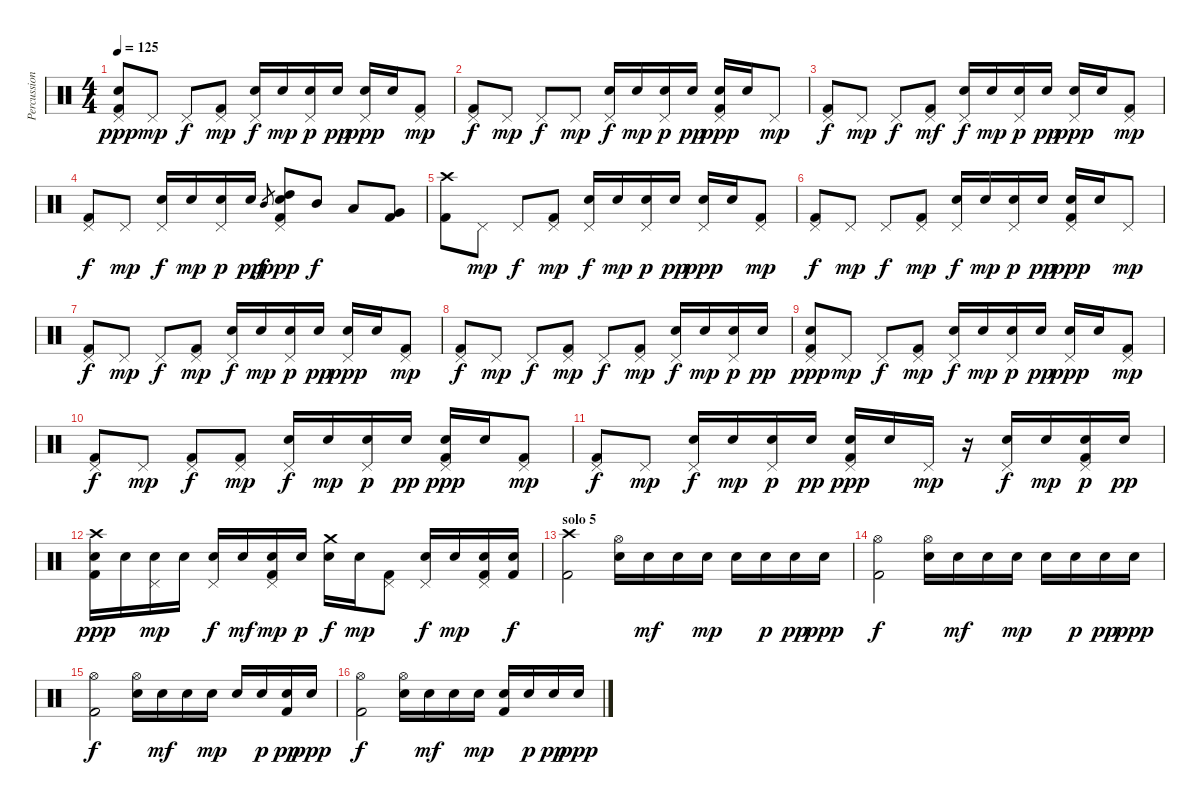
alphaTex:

\track ("Percussion" "Percussion") {instrument percussion}
\staff {score}
\articulation defaults
\ts (4 4)
\tempo 125
\clef neutral
\ks c
("Pedal Hi-Hat (hit)" "Electric Snare (hit)" "Kick (hit) 2").8{dy ppp} "Pedal Hi-Hat (hit)".8{dy mp} "Pedal Hi-Hat (hit)".8{dy f} ("Pedal Hi-Hat (hit)" "Kick (hit) 2").8{dy mp} ("Pedal Hi-Hat (hit)" "Electric Snare (hit)").16{dy f} "Electric Snare (hit)".16{dy mp} ("Pedal Hi-Hat (hit)" "Electric Snare (hit)").16{dy p} "Electric Snare (hit)".16{dy pp} ("Pedal Hi-Hat (hit)" "Electric Snare (hit)").16{dy ppp} "Electric Snare (hit)".16 ("Pedal Hi-Hat (hit)" "Kick (hit) 2").8{dy mp} |
("Pedal Hi-Hat (hit)" "Kick (hit) 2").8{dy f} "Pedal Hi-Hat (hit)".8{dy mp} "Pedal Hi-Hat (hit)".8{dy f} "Pedal Hi-Hat (hit)".8{dy mp} ("Pedal Hi-Hat (hit)" "Electric Snare (hit)").16{dy f} "Electric Snare (hit)".16{dy mp} ("Pedal Hi-Hat (hit)" "Electric Snare (hit)").16{dy p} "Electric Snare (hit)".16{dy pp} ("Pedal Hi-Hat (hit)" "Electric Snare (hit)" "Kick (hit) 2").16{dy ppp} "Electric Snare (hit)".16 "Pedal Hi-Hat (hit)".8{dy mp} |
("Pedal Hi-Hat (hit)" "Kick (hit) 2").8{dy f} "Pedal Hi-Hat (hit)".8{dy mp} "Pedal Hi-Hat (hit)".8{dy f} ("Pedal Hi-Hat (hit)" "Kick (hit) 2").8{dy mf} ("Pedal Hi-Hat (hit)" "Electric Snare (hit)").16{dy f} "Electric Snare (hit)".16{dy mp} ("Pedal Hi-Hat (hit)" "Electric Snare (hit)").16{dy p} "Electric Snare (hit)".16{dy pp} ("Pedal Hi-Hat (hit)" "Electric Snare (hit)").16{dy ppp} "Electric Snare (hit)".16 ("Pedal Hi-Hat (hit)" "Kick (hit) 2").8{dy mp} |
("Pedal Hi-Hat (hit)" "Kick (hit) 2").8{dy f} "Pedal Hi-Hat (hit)".8{dy mp} ("Pedal Hi-Hat (hit)" "Electric Snare (hit)").16{dy f} "Electric Snare (hit)".16{dy mp} ("Pedal Hi-Hat (hit)" "Electric Snare (hit)").16{dy p} "Electric Snare (hit)".16{dy pp} "Mid Tom (hit)".8{gr dy f} ("Pedal Hi-Hat (hit)" "High Tom (hit)" "Electric Snare (hit)" "Kick (hit) 2").8{dy ppp} "Mid Tom (hit)".8{dy f} "Low Tom (hit)".8 ("Very Low Tom (hit)" "Kick (hit) 2").8 |
("Crash high (hit)" "Kick (hit) 2").8 "Pedal Hi-Hat (hit)".8{dy mp} "Pedal Hi-Hat (hit)".8{dy f} ("Pedal Hi-Hat (hit)" "Kick (hit) 2").8{dy mp} ("Pedal Hi-Hat (hit)" "Electric Snare (hit)").16{dy f} "Electric Snare (hit)".16{dy mp} ("Pedal Hi-Hat (hit)" "Electric Snare (hit)").16{dy p} "Electric Snare (hit)".16{dy pp} ("Pedal Hi-Hat (hit)" "Electric Snare (hit)").16{dy ppp} "Electric Snare (hit)".16 ("Pedal Hi-Hat (hit)" "Kick (hit) 2").8{dy mp} |
("Pedal Hi-Hat (hit)" "Kick (hit) 2").8{dy f} "Pedal Hi-Hat (hit)".8{dy mp} "Pedal Hi-Hat (hit)".8{dy f} ("Pedal Hi-Hat (hit)" "Kick (hit) 2").8{dy mp} ("Pedal Hi-Hat (hit)" "Electric Snare (hit)").16{dy f} "Electric Snare (hit)".16{dy mp} ("Pedal Hi-Hat (hit)" "Electric Snare (hit)").16{dy p} "Electric Snare (hit)".16{dy pp} ("Pedal Hi-Hat (hit)" "Electric Snare (hit)" "Kick (hit) 2").16{dy ppp} "Electric Snare (hit)".16 "Pedal Hi-Hat (hit)".8{dy mp} |
("Pedal Hi-Hat (hit)" "Kick (hit) 2").8{dy f} "Pedal Hi-Hat (hit)".8{dy mp} "Pedal Hi-Hat (hit)".8{dy f} ("Pedal Hi-Hat (hit)" "Kick (hit) 2").8{dy mp} ("Pedal Hi-Hat (hit)" "Electric Snare (hit)").16{dy f} "Electric Snare (hit)".16{dy mp} ("Pedal Hi-Hat (hit)" "Electric Snare (hit)").16{dy p} "Electric Snare (hit)".16{dy pp} ("Pedal Hi-Hat (hit)" "Electric Snare (hit)").16{dy ppp} "Electric Snare (hit)".16 ("Pedal Hi-Hat (hit)" "Kick (hit) 2").8{dy mp} |
("Pedal Hi-Hat (hit)" "Kick (hit) 2").8{dy f} "Pedal Hi-Hat (hit)".8{dy mp} "Pedal Hi-Hat (hit)".8{dy f} ("Pedal Hi-Hat (hit)" "Kick (hit) 2").8{dy mp} "Pedal Hi-Hat (hit)".8{dy f} ("Pedal Hi-Hat (hit)" "Kick (hit) 2").8{dy mp} ("Pedal Hi-Hat (hit)" "Electric Snare (hit)").16{dy f} "Electric Snare (hit)".16{dy mp} ("Pedal Hi-Hat (hit)" "Electric Snare (hit)").16{dy p} "Electric Snare (hit)".16{dy pp} |
("Pedal Hi-Hat (hit)" "Electric Snare (hit)" "Kick (hit) 2").8{dy ppp} "Pedal Hi-Hat (hit)".8{dy mp} "Pedal Hi-Hat (hit)".8{dy f} ("Pedal Hi-Hat (hit)" "Kick (hit) 2").8{dy mp} ("Pedal Hi-Hat (hit)" "Electric Snare (hit)").16{dy f} "Electric Snare (hit)".16{dy mp} ("Pedal Hi-Hat (hit)" "Electric Snare (hit)").16{dy p} "Electric Snare (hit)".16{dy pp} ("Pedal Hi-Hat (hit)" "Electric Snare (hit)").16{dy ppp} "Electric Snare (hit)".16 ("Pedal Hi-Hat (hit)" "Kick (hit) 2").8{dy mp} |
("Pedal Hi-Hat (hit)" "Kick (hit) 2").8{dy f} "Pedal Hi-Hat (hit)".8{dy mp} ("Pedal Hi-Hat (hit)" "Kick (hit) 2").8{dy f} ("Pedal Hi-Hat (hit)" "Kick (hit) 2").8{dy mp} ("Pedal Hi-Hat (hit)" "Electric Snare (hit)").16{dy f} "Electric Snare (hit)".16{dy mp} ("Pedal Hi-Hat (hit)" "Electric Snare (hit)").16{dy p} "Electric Snare (hit)".16{dy pp} ("Pedal Hi-Hat (hit)" "Electric Snare (hit)" "Kick (hit) 2").16{dy ppp} "Electric Snare (hit)".16 ("Pedal Hi-Hat (hit)" "Kick (hit) 2").8{dy mp} |
("Pedal Hi-Hat (hit)" "Kick (hit) 2").8{dy f} "Pedal Hi-Hat (hit)".8{dy mp} ("Pedal Hi-Hat (hit)" "Electric Snare (hit)").16{dy f} "Electric Snare (hit)".16{dy mp} ("Pedal Hi-Hat (hit)" "Electric Snare (hit)").16{dy p} "Electric Snare (hit)".16{dy pp} ("Pedal Hi-Hat (hit)" "Electric Snare (hit)" "Kick (hit) 2").16{dy ppp} "Electric Snare (hit)".16 "Pedal Hi-Hat (hit)".16{dy mp} r.16 ("Pedal Hi-Hat (hit)" "Electric Snare (hit)").16{dy f} "Electric Snare (hit)".16{dy mp} ("Pedal Hi-Hat (hit)" "Electric Snare (hit)" "Kick (hit) 2").16{dy p} "Electric Snare (hit)".16{dy pp} |
("Crash high (hit)" "Electric Snare (hit)" "Kick (hit) 2").16{dy ppp} "Electric Snare (hit)".16 ("Pedal Hi-Hat (hit)" "Electric Snare (hit)").16{dy mp} "Electric Snare (hit)".16 ("Pedal Hi-Hat (hit)" "Electric Snare (hit)").16{dy f} "Electric Snare (hit)".16{dy mf} ("Pedal Hi-Hat (hit)" "Electric Snare (hit)" "Kick (hit) 2").16{dy mp} "Electric Snare (hit)".16{dy p} ("Crash medium (hit)" "Electric Snare (hit)").16{dy f} "Electric Snare (hit)".16{dy mp} ("Pedal Hi-Hat (hit)" "Kick (hit) 2").8 ("Pedal Hi-Hat (hit)" "Electric Snare (hit)").16{dy f} "Electric Snare (hit)".16{dy mp} ("Pedal Hi-Hat (hit)" "Electric Snare (hit)" "Kick (hit) 2").16 ("Electric Snare (hit)" "Kick (hit) 2").16{dy f} |
\section ("" "solo 5")
("Crash high (hit)" "Kick (hit) 2").2 ("Hi-Hat (open)" "Electric Snare (hit)").16 "Electric Snare (hit)".16{dy mf} "Electric Snare (hit)".16 "Electric Snare (hit)".16{dy mp} "Electric Snare (hit)".16 "Electric Snare (hit)".16{dy p} "Electric Snare (hit)".16{dy pp} "Electric Snare (hit)".16{dy ppp} |
("Hi-Hat (open)" "Kick (hit) 2").2{dy f} ("Hi-Hat (open)" "Electric Snare (hit)").16 "Electric Snare (hit)".16{dy mf} "Electric Snare (hit)".16 "Electric Snare (hit)".16{dy mp} "Electric Snare (hit)".16 "Electric Snare (hit)".16{dy p} "Electric Snare (hit)".16{dy pp} "Electric Snare (hit)".16{dy ppp} |
("Hi-Hat (open)" "Kick (hit) 2").2{dy f} ("Hi-Hat (open)" "Electric Snare (hit)").16 "Electric Snare (hit)".16{dy mf} "Electric Snare (hit)".16 "Electric Snare (hit)".16{dy mp} "Electric Snare (hit)".16 "Electric Snare (hit)".16{dy p} ("Electric Snare (hit)" "Kick (hit) 2").16{dy pp} "Electric Snare (hit)".16{dy ppp} |
("Hi-Hat (open)" "Kick (hit) 2").2{dy f} ("Hi-Hat (open)" "Electric Snare (hit)").16 "Electric Snare (hit)".16{dy mf} "Electric Snare (hit)".16 "Electric Snare (hit)".16{dy mp} ("Electric Snare (hit)" "Kick (hit) 2").16 "Electric Snare (hit)".16{dy p} "Electric Snare (hit)".16{dy pp} "Electric Snare (hit)".16{dy ppp}
